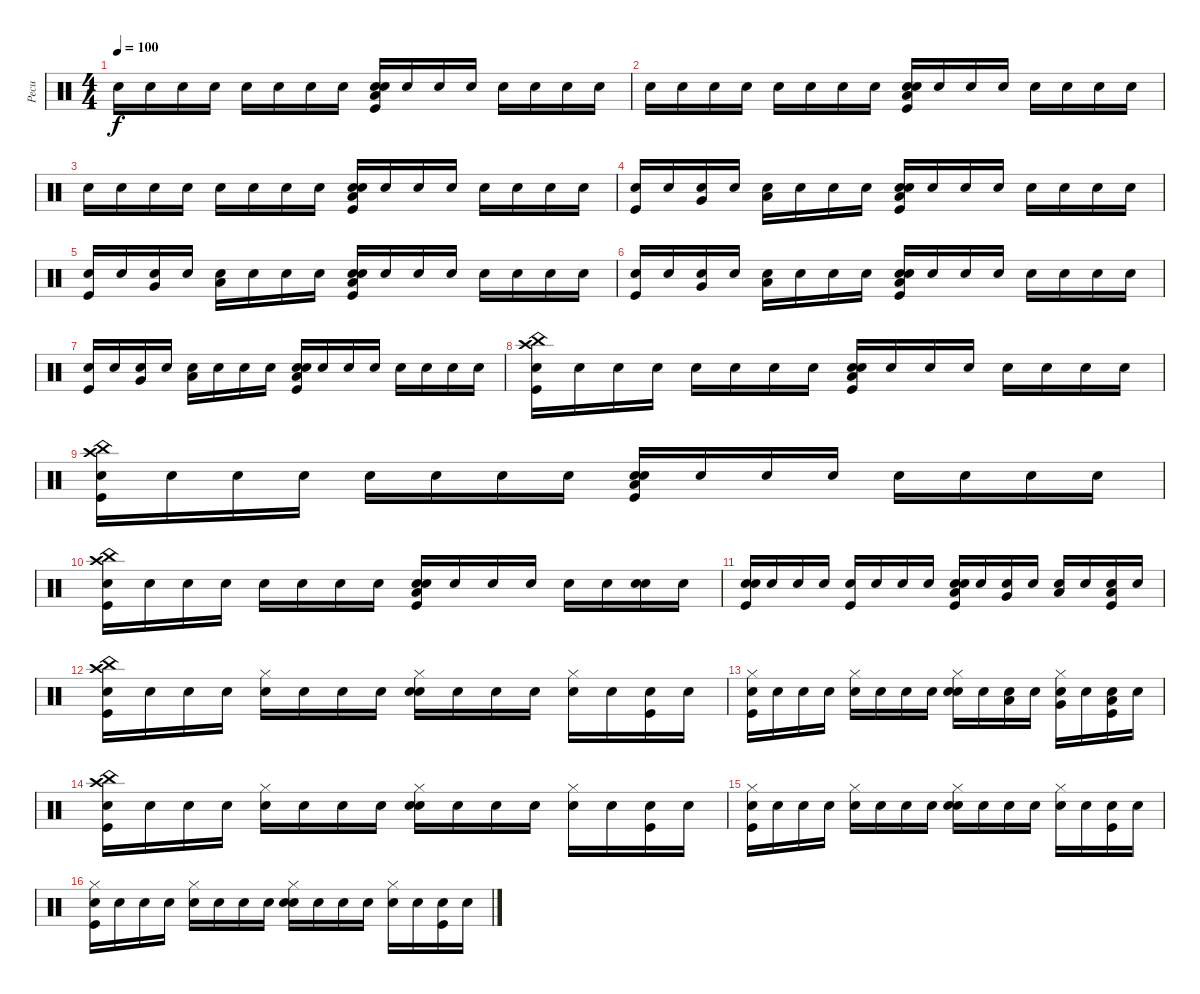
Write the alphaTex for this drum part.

\track ("Pecu" "Pecu") {instrument percussion}
\staff {score}
\articulation defaults
\ts (4 4)
\tempo 100
\clef neutral
\ks c "Snare (hit)".16{dy f} "Snare (hit)".16 "Snare (hit)".16 "Snare (hit)".16 "Snare (hit)".16 "Snare (hit)".16 "Snare (hit)".16 "Snare (hit)".16
("Snare (hit)" "Snare (hit)" "Low Floor Tom (hit)" "Kick (hit)").16 "Snare (hit)".16 "Snare (hit)".16 "Snare (hit)".16 "Snare (hit)".16 "Snare (hit)".16 "Snare (hit)".16 "Snare (hit)".16 |
"Snare (hit)".16 "Snare (hit)".16 "Snare (hit)".16 "Snare (hit)".16 "Snare (hit)".16 "Snare (hit)".16 "Snare (hit)".16 "Snare (hit)".16 ("Snare (hit)" "Snare (hit)" "Low Floor Tom (hit)" "Kick (hit)").16 "Snare (hit)".16 "Snare (hit)".16 "Snare (hit)".16 "Snare (hit)".16 "Snare (hit)".16 "Snare (hit)".16 "Snare (hit)".16 |
"Snare (hit)".16 "Snare (hit)".16 "Snare (hit)".16 "Snare (hit)".16 "Snare (hit)".16 "Snare (hit)".16 "Snare (hit)".16 "Snare (hit)".16 ("Snare (hit)" "Snare (hit)" "Low Floor Tom (hit)" "Kick (hit)").16 "Snare (hit)".16 "Snare (hit)".16 "Snare (hit)".16 "Snare (hit)".16 "Snare (hit)".16 "Snare (hit)".16 "Snare (hit)".16 |
("Snare (hit)" "Kick (hit)").16 "Snare (hit)".16 ("Snare (hit)" "Very Low Tom (hit)").16 "Snare (hit)".16 ("Snare (hit)" "Low Floor Tom (hit)").16 "Snare (hit)".16 "Snare (hit)".16 "Snare (hit)".16 ("Snare (hit)" "Snare (hit)" "Low Floor Tom (hit)" "Kick (hit)").16 "Snare (hit)".16 "Snare (hit)".16 "Snare (hit)".16 "Snare (hit)".16 "Snare (hit)".16 "Snare (hit)".16 "Snare (hit)".16 |
("Snare (hit)" "Kick (hit)").16 "Snare (hit)".16 ("Snare (hit)" "Very Low Tom (hit)").16 "Snare (hit)".16 ("Snare (hit)" "Low Floor Tom (hit)").16 "Snare (hit)".16 "Snare (hit)".16 "Snare (hit)".16 ("Snare (hit)" "Snare (hit)" "Low Floor Tom (hit)" "Kick (hit)").16 "Snare (hit)".16 "Snare (hit)".16 "Snare (hit)".16 "Snare (hit)".16 "Snare (hit)".16 "Snare (hit)".16 "Snare (hit)".16 |
("Snare (hit)" "Kick (hit)").16 "Snare (hit)".16 ("Snare (hit)" "Very Low Tom (hit)").16 "Snare (hit)".16 ("Snare (hit)" "Low Floor Tom (hit)").16 "Snare (hit)".16 "Snare (hit)".16 "Snare (hit)".16 ("Snare (hit)" "Snare (hit)" "Low Floor Tom (hit)" "Kick (hit)").16 "Snare (hit)".16 "Snare (hit)".16 "Snare (hit)".16 "Snare (hit)".16 "Snare (hit)".16 "Snare (hit)".16 "Snare (hit)".16 |
("Snare (hit)" "Kick (hit)").16 "Snare (hit)".16 ("Snare (hit)" "Very Low Tom (hit)").16 "Snare (hit)".16 ("Snare (hit)" "Low Floor Tom (hit)").16 "Snare (hit)".16 "Snare (hit)".16 "Snare (hit)".16 ("Snare (hit)" "Snare (hit)" "Low Floor Tom (hit)" "Kick (hit)").16 "Snare (hit)".16 "Snare (hit)".16 "Snare (hit)".16 "Snare (hit)".16 "Snare (hit)".16 "Snare (hit)".16 "Snare (hit)".16 |
("Snare (hit)" "Crash high (hit)" "China (hit)" "Kick (hit)").16 "Snare (hit)".16 "Snare (hit)".16 "Snare (hit)".16 "Snare (hit)".16 "Snare (hit)".16 "Snare (hit)".16 "Snare (hit)".16 ("Snare (hit)" "Snare (hit)" "Low Floor Tom (hit)" "Kick (hit)").16 "Snare (hit)".16 "Snare (hit)".16 "Snare (hit)".16 "Snare (hit)".16 "Snare (hit)".16 "Snare (hit)".16 "Snare (hit)".16 |
("Snare (hit)" "Crash high (hit)" "China (hit)" "Kick (hit)").16 "Snare (hit)".16 "Snare (hit)".16 "Snare (hit)".16 "Snare (hit)".16 "Snare (hit)".16 "Snare (hit)".16 "Snare (hit)".16 ("Snare (hit)" "Snare (hit)" "Low Floor Tom (hit)" "Kick (hit)").16 "Snare (hit)".16 "Snare (hit)".16 "Snare (hit)".16 "Snare (hit)".16 "Snare (hit)".16 "Snare (hit)".16 "Snare (hit)".16 |
("Snare (hit)" "Crash high (hit)" "China (hit)" "Kick (hit)").16 "Snare (hit)".16 "Snare (hit)".16 "Snare (hit)".16 "Snare (hit)".16 "Snare (hit)".16 "Snare (hit)".16 "Snare (hit)".16 ("Snare (hit)" "Snare (hit)" "Low Floor Tom (hit)" "Kick (hit)").16 "Snare (hit)".16 "Snare (hit)".16 "Snare (hit)".16 "Snare (hit)".16 "Snare (hit)".16 ("Snare (hit)" "Snare (hit) 2").16 "Snare (hit)".16 |
("Snare (hit)" "Snare (hit) 2" "Kick (hit)").16 "Snare (hit)".16 "Snare (hit)".16 "Snare (hit)".16 ("Snare (hit)" "Kick (hit)").16 "Snare (hit)".16 "Snare (hit)".16 "Snare (hit)".16 ("Snare (hit)" "Snare (hit)" "Low Tom (hit)" "Kick (hit)").16 "Snare (hit)".16 ("Snare (hit)" "Very Low Tom (hit)").16 "Snare (hit)".16 ("Snare (hit)" "Low Floor Tom (hit)").16 "Snare (hit)".16 ("Snare (hit)" "Low Floor Tom (hit)" "Kick (hit)").16 "Snare (hit)".16 |
("Snare (hit)" "Crash high (hit)" "China (hit)" "Kick (hit)").16 "Snare (hit)".16 "Snare (hit)".16 "Snare (hit)".16 ("Snare (hit)" "Hi-Hat (closed)").16 "Snare (hit)".16 "Snare (hit)".16 "Snare (hit)".16 ("Snare (hit)" "Hi-Hat (closed)" "Snare (hit) 2").16 "Snare (hit)".16 "Snare (hit)".16 "Snare (hit)".16 ("Snare (hit)" "Hi-Hat (closed)").16 "Snare (hit)".16 ("Snare (hit)" "Kick (hit)").16 "Snare (hit)".16 |
("Snare (hit)" "Hi-Hat (closed)" "Kick (hit)").16 "Snare (hit)".16 "Snare (hit)".16 "Snare (hit)".16 ("Snare (hit)" "Hi-Hat (closed)").16 "Snare (hit)".16 "Snare (hit)".16 "Snare (hit)".16 ("Snare (hit)" "Hi-Hat (closed)" "Snare (hit) 2").16 "Snare (hit)".16 ("Snare (hit)" "Low Tom (hit)").16 "Snare (hit)".16 ("Snare (hit)" "Hi-Hat (closed)" "Very Low Tom (hit)").16 "Snare (hit)".16 ("Snare (hit)" "Low Floor Tom (hit)" "Kick (hit)").16 "Snare (hit)".16 |
("Snare (hit)" "Crash high (hit)" "China (hit)" "Kick (hit)").16 "Snare (hit)".16 "Snare (hit)".16 "Snare (hit)".16 ("Snare (hit)" "Hi-Hat (closed)").16 "Snare (hit)".16 "Snare (hit)".16 "Snare (hit)".16 ("Snare (hit)" "Hi-Hat (closed)" "Snare (hit) 2").16 "Snare (hit)".16 "Snare (hit)".16 "Snare (hit)".16 ("Snare (hit)" "Hi-Hat (closed)").16 "Snare (hit)".16 ("Snare (hit)" "Kick (hit)").16 "Snare (hit)".16 |
("Snare (hit)" "Hi-Hat (closed)" "Kick (hit)").16 "Snare (hit)".16 "Snare (hit)".16 "Snare (hit)".16 ("Snare (hit)" "Hi-Hat (closed)").16 "Snare (hit)".16 "Snare (hit)".16 "Snare (hit)".16 ("Snare (hit)" "Hi-Hat (closed)" "Snare (hit) 2").16 "Snare (hit)".16 "Snare (hit)".16 "Snare (hit)".16 ("Snare (hit)" "Hi-Hat (closed)").16 "Snare (hit)".16 ("Snare (hit)" "Kick (hit)").16 "Snare (hit)".16 |
("Snare (hit)" "Hi-Hat (closed)" "Kick (hit)").16 "Snare (hit)".16 "Snare (hit)".16 "Snare (hit)".16 ("Snare (hit)" "Hi-Hat (closed)").16 "Snare (hit)".16 "Snare (hit)".16 "Snare (hit)".16 ("Snare (hit)" "Hi-Hat (closed)" "Snare (hit) 2").16 "Snare (hit)".16 "Snare (hit)".16 "Snare (hit)".16 ("Snare (hit)" "Hi-Hat (closed)").16 "Snare (hit)".16 ("Snare (hit)" "Kick (hit)").16 "Snare (hit)".16
